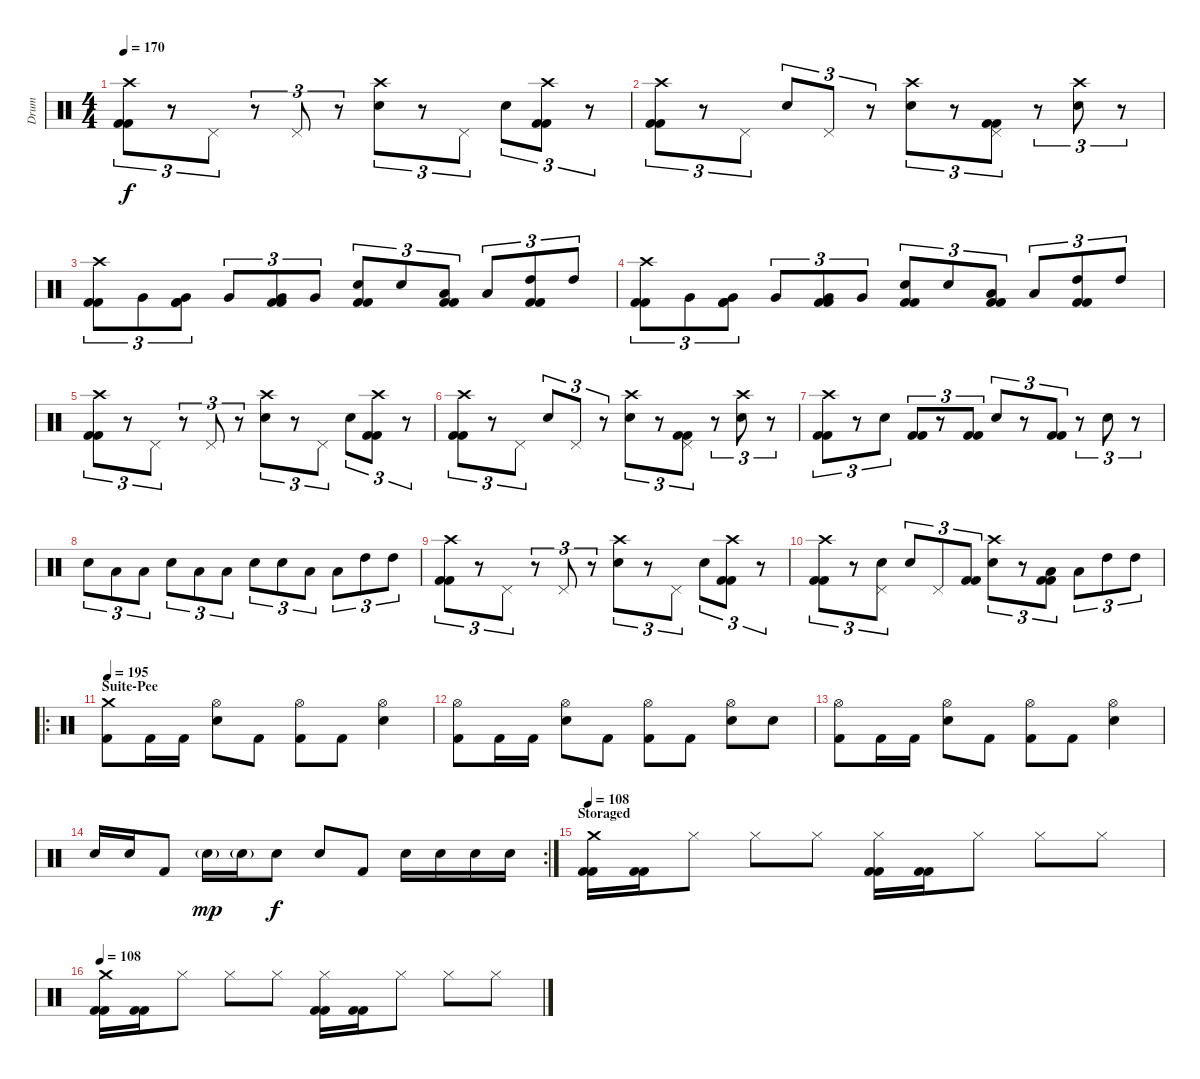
\track ("Drum" "Drum") {instrument percussion}
\staff {score}
\articulation defaults
\ts (4 4)
\tempo 170
\clef neutral
\ks c
("Crash high (hit)" "Kick (hit) 2" "Kick (hit) 2").8{tu (3 2) dy f} r.8{tu (3 2)} "Pedal Hi-Hat (hit)".8{tu (3 2)} r.8{tu (3 2)} "Pedal Hi-Hat (hit)".8{tu (3 2)} r.8{tu (3 2)} ("Crash high (hit)" "Snare (hit) 2").8{tu (3 2)} r.8{tu (3 2)} "Pedal Hi-Hat (hit)".8{tu (3 2)} "Snare (hit) 2".8{tu (3 2)} ("Crash high (hit)" "Kick (hit) 2" "Kick (hit) 2").8{tu (3 2)} r.8{tu (3 2)} |
("Crash high (hit)" "Kick (hit) 2" "Kick (hit) 2").8{tu (3 2)} r.8{tu (3 2)} "Pedal Hi-Hat (hit)".8{tu (3 2)} "Snare (hit) 2".8{tu (3 2)} "Pedal Hi-Hat (hit)".8{tu (3 2)} r.8{tu (3 2)} ("Crash high (hit)" "Snare (hit) 2").8{tu (3 2)} r.8{tu (3 2)} ("Pedal Hi-Hat (hit)" "Kick (hit) 2" "Kick (hit) 2").8{tu (3 2)} r.8{tu (3 2)} ("Crash high (hit)" "Snare (hit) 2").8{tu (3 2)} r.8{tu (3 2)} |
("Crash high (hit)" "Kick (hit) 2" "Kick (hit) 2").8{tu (3 2)} "Very Low Tom (hit)".8{tu (3 2)} ("Very Low Tom (hit)" "Kick (hit) 2" "Kick (hit) 2").8{tu (3 2)} "Very Low Tom (hit)".8{tu (3 2)} ("Very Low Tom (hit)" "Kick (hit) 2" "Kick (hit) 2").8{tu (3 2)} "Very Low Tom (hit)".8{tu (3 2)} ("Snare (hit) 2" "Kick (hit) 2" "Kick (hit) 2").8{tu (3 2)} "Snare (hit) 2".8{tu (3 2)} ("Low Tom (hit)" "Kick (hit) 2" "Kick (hit) 2").8{tu (3 2)} "Low Tom (hit)".8{tu (3 2)} ("High Tom (hit)" "Kick (hit) 2" "Kick (hit) 2").8{tu (3 2)} "High Tom (hit)".8{tu (3 2)} |
("Crash high (hit)" "Kick (hit) 2" "Kick (hit) 2").8{tu (3 2)} "Very Low Tom (hit)".8{tu (3 2)} ("Very Low Tom (hit)" "Kick (hit) 2" "Kick (hit) 2").8{tu (3 2)} "Very Low Tom (hit)".8{tu (3 2)} ("Very Low Tom (hit)" "Kick (hit) 2" "Kick (hit) 2").8{tu (3 2)} "Very Low Tom (hit)".8{tu (3 2)} ("Snare (hit) 2" "Kick (hit) 2" "Kick (hit) 2").8{tu (3 2)} "Snare (hit) 2".8{tu (3 2)} ("Low Tom (hit)" "Kick (hit) 2" "Kick (hit) 2").8{tu (3 2)} "Low Tom (hit)".8{tu (3 2)} ("High Tom (hit)" "Kick (hit) 2" "Kick (hit) 2").8{tu (3 2)} "High Tom (hit)".8{tu (3 2)} |
("Crash high (hit)" "Kick (hit) 2" "Kick (hit) 2").8{tu (3 2)} r.8{tu (3 2)} "Pedal Hi-Hat (hit)".8{tu (3 2)} r.8{tu (3 2)} "Pedal Hi-Hat (hit)".8{tu (3 2)} r.8{tu (3 2)} ("Crash high (hit)" "Snare (hit) 2").8{tu (3 2)} r.8{tu (3 2)} "Pedal Hi-Hat (hit)".8{tu (3 2)} "Snare (hit) 2".8{tu (3 2)} ("Crash high (hit)" "Kick (hit) 2" "Kick (hit) 2").8{tu (3 2)} r.8{tu (3 2)} |
("Crash high (hit)" "Kick (hit) 2" "Kick (hit) 2").8{tu (3 2)} r.8{tu (3 2)} "Pedal Hi-Hat (hit)".8{tu (3 2)} "Snare (hit) 2".8{tu (3 2)} "Pedal Hi-Hat (hit)".8{tu (3 2)} r.8{tu (3 2)} ("Crash high (hit)" "Snare (hit) 2").8{tu (3 2)} r.8{tu (3 2)} ("Pedal Hi-Hat (hit)" "Kick (hit) 2" "Kick (hit) 2").8{tu (3 2)} r.8{tu (3 2)} ("Crash high (hit)" "Snare (hit) 2").8{tu (3 2)} r.8{tu (3 2)} |
("Crash high (hit)" "Kick (hit) 2" "Kick (hit) 2").8{tu (3 2)} r.8{tu (3 2)} "Snare (hit) 2".8{tu (3 2)} ("Kick (hit) 2" "Kick (hit) 2").8{tu (3 2)} r.8{tu (3 2)} ("Kick (hit) 2" "Kick (hit) 2").8{tu (3 2)} "Snare (hit) 2".8{tu (3 2)} r.8{tu (3 2)} ("Kick (hit) 2" "Kick (hit) 2").8{tu (3 2)} r.8{tu (3 2)} "Snare (hit) 2".8{tu (3 2)} r.8{tu (3 2)} |
"Snare (hit) 2".8{tu (3 2)} "Low Tom (hit)".8{tu (3 2)} "Low Tom (hit)".8{tu (3 2)} "Snare (hit) 2".8{tu (3 2)} "Low Tom (hit)".8{tu (3 2)} "Low Tom (hit)".8{tu (3 2)} "Snare (hit) 2".8{tu (3 2)} "Snare (hit) 2".8{tu (3 2)} "Low Tom (hit)".8{tu (3 2)} "Low Tom (hit)".8{tu (3 2)} "High Tom (hit)".8{tu (3 2)} "High Tom (hit)".8{tu (3 2)} |
("Crash high (hit)" "Kick (hit) 2" "Kick (hit) 2").8{tu (3 2)} r.8{tu (3 2)} "Pedal Hi-Hat (hit)".8{tu (3 2)} r.8{tu (3 2)} "Pedal Hi-Hat (hit)".8{tu (3 2)} r.8{tu (3 2)} ("Crash high (hit)" "Snare (hit) 2").8{tu (3 2)} r.8{tu (3 2)} "Pedal Hi-Hat (hit)".8{tu (3 2)} "Snare (hit) 2".8{tu (3 2)} ("Crash high (hit)" "Kick (hit) 2" "Kick (hit) 2").8{tu (3 2)} r.8{tu (3 2)} |
("Crash high (hit)" "Kick (hit) 2" "Kick (hit) 2").8{tu (3 2)} r.8{tu (3 2)} ("Pedal Hi-Hat (hit)" "Snare (hit) 2").8{tu (3 2)} "Snare (hit) 2".8{tu (3 2)} "Pedal Hi-Hat (hit)".8{tu (3 2)} ("Kick (hit) 2" "Kick (hit) 2").8{tu (3 2)} ("Crash high (hit)" "Snare (hit) 2").8{tu (3 2)} r.8{tu (3 2)} ("Low Tom (hit)" "Kick (hit) 2" "Kick (hit) 2").8{tu (3 2)} "Low Tom (hit)".8{tu (3 2)} "High Tom (hit)".8{tu (3 2)} "High Tom (hit)".8{tu (3 2)} |
\ro
\section ("" "Suite-Pee")
\tempo 195
("Crash medium (hit)" "Kick (hit) 2").8 "Kick (hit) 2".16 "Kick (hit) 2".16 ("Hi-Hat (open)" "Electric Snare (hit)").8 "Kick (hit) 2".8 ("Hi-Hat (open)" "Kick (hit) 2").8 "Kick (hit) 2".8 ("Hi-Hat (open)" "Electric Snare (hit)").4 |
("Hi-Hat (open)" "Kick (hit) 2").8 "Kick (hit) 2".16 "Kick (hit) 2".16 ("Hi-Hat (open)" "Electric Snare (hit)").8 "Kick (hit) 2".8 ("Hi-Hat (open)" "Kick (hit) 2").8 "Kick (hit) 2".8 ("Hi-Hat (open)" "Electric Snare (hit)").8 "Electric Snare (hit)".8 |
("Hi-Hat (open)" "Kick (hit) 2").8 "Kick (hit) 2".16 "Kick (hit) 2".16 ("Hi-Hat (open)" "Electric Snare (hit)").8 "Kick (hit) 2".8 ("Hi-Hat (open)" "Kick (hit) 2").8 "Kick (hit) 2".8 ("Hi-Hat (open)" "Electric Snare (hit)").4 |
\rc 2 "Electric Snare (hit)".16 "Electric Snare (hit)".16 "Kick (hit) 2".8 "Electric Snare (hit)"{g}.16{dy mp} "Electric Snare (hit)"{g}.16 "Electric Snare (hit)".8{dy f} "Electric Snare (hit)".8 "Kick (hit) 2".8 "Electric Snare (hit)".16 "Electric Snare (hit)".16 "Electric Snare (hit)".16 "Electric Snare (hit)".16
|
\section ("" "Storaged")
\tempo 108
("Crash medium (hit)" "Kick (hit) 2" "Kick (hit) 2").16 ("Kick (hit) 2" "Kick (hit) 2").16 "Hi-Hat (closed)".8 "Hi-Hat (closed)".8 "Hi-Hat (closed)".8 ("Hi-Hat (closed)" "Kick (hit) 2" "Kick (hit) 2").16 ("Kick (hit) 2" "Kick (hit) 2").16 "Hi-Hat (closed)".8 "Hi-Hat (closed)".8 "Hi-Hat (closed)".8 |
\tempo 108
("Crash medium (hit)" "Kick (hit) 2" "Kick (hit) 2").16 ("Kick (hit) 2" "Kick (hit) 2").16 "Hi-Hat (closed)".8 "Hi-Hat (closed)".8 "Hi-Hat (closed)".8 ("Hi-Hat (closed)" "Kick (hit) 2" "Kick (hit) 2").16 ("Kick (hit) 2" "Kick (hit) 2").16 "Hi-Hat (closed)".8 "Hi-Hat (closed)".8 "Hi-Hat (closed)".8
